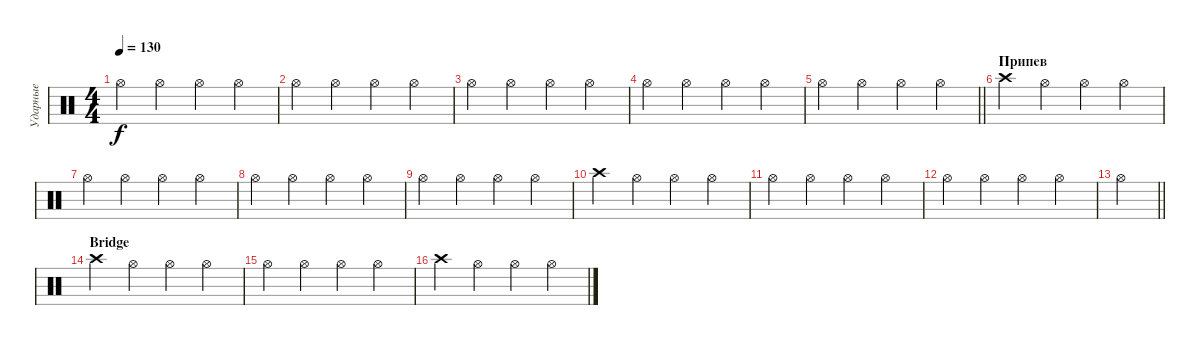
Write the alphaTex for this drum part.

\track ("Ударные" "Ударные") {instrument percussion}
\staff {score}
\articulation defaults
\ts (4 4)
\tempo 130
\clef neutral
\ks c "Hi-Hat (open)".4{dy f} "Hi-Hat (open)".4 "Hi-Hat (open)".4 "Hi-Hat (open)".4
|
"Hi-Hat (open)".4 "Hi-Hat (open)".4 "Hi-Hat (open)".4 "Hi-Hat (open)".4 |
"Hi-Hat (open)".4 "Hi-Hat (open)".4 "Hi-Hat (open)".4 "Hi-Hat (open)".4 |
"Hi-Hat (open)".4 "Hi-Hat (open)".4 "Hi-Hat (open)".4 "Hi-Hat (open)".4 |
\barLineRight lightlight "Hi-Hat (open)".4 "Hi-Hat (open)".4 "Hi-Hat (open)".4 "Hi-Hat (open)".4
|
\section ("" "Припев")
"Crash high (hit)".4 "Hi-Hat (open)".4 "Hi-Hat (open)".4 "Hi-Hat (open)".4 |
"Hi-Hat (open)".4 "Hi-Hat (open)".4 "Hi-Hat (open)".4 "Hi-Hat (open)".4 |
"Hi-Hat (open)".4 "Hi-Hat (open)".4 "Hi-Hat (open)".4 "Hi-Hat (open)".4 |
"Hi-Hat (open)".4 "Hi-Hat (open)".4 "Hi-Hat (open)".4 "Hi-Hat (open)".4 |
"Crash high (hit)".4 "Hi-Hat (open)".4 "Hi-Hat (open)".4 "Hi-Hat (open)".4 |
"Hi-Hat (open)".4 "Hi-Hat (open)".4 "Hi-Hat (open)".4 "Hi-Hat (open)".4 |
"Hi-Hat (open)".4 "Hi-Hat (open)".4 "Hi-Hat (open)".4 "Hi-Hat (open)".4 |
\barLineRight lightlight "Hi-Hat (open)".4
|
\section ("" "Bridge")
"Crash high (hit)".4 "Hi-Hat (open)".4 "Hi-Hat (open)".4 "Hi-Hat (open)".4 |
"Hi-Hat (open)".4 "Hi-Hat (open)".4 "Hi-Hat (open)".4 "Hi-Hat (open)".4 |
"Crash high (hit)".4 "Hi-Hat (open)".4 "Hi-Hat (open)".4 "Hi-Hat (open)".4
